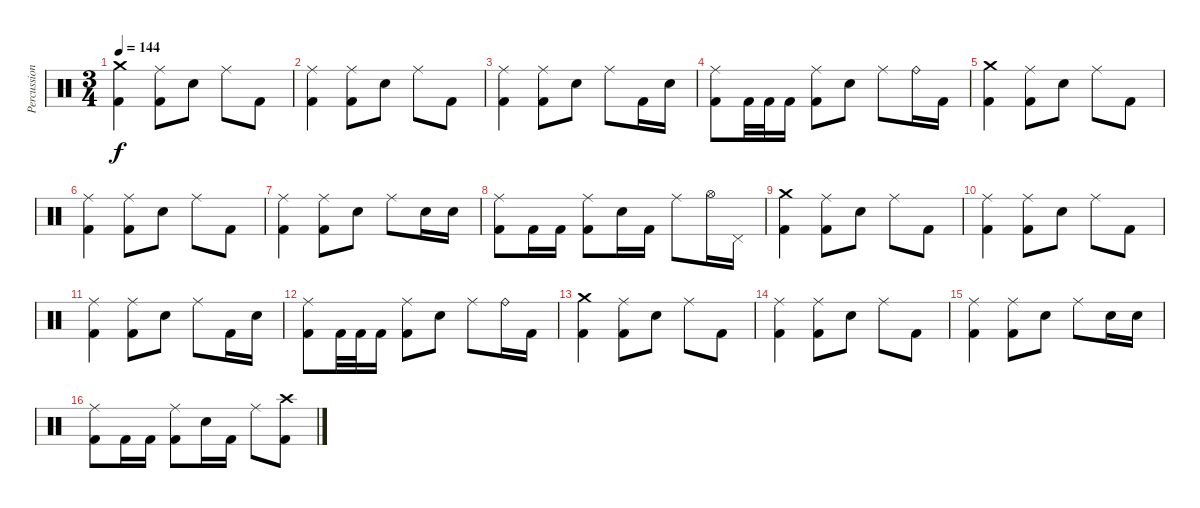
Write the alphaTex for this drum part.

\track ("Percussion" "Percussion") {instrument percussion}
\staff {score}
\articulation defaults
\ts (3 4)
\tempo 144
\clef neutral
\ks c
("Crash medium (hit)" "Kick (hit) 2").4{dy f} ("Ride (middle)" "Kick (hit) 2").8 "Electric Snare (hit)".8 "Ride (middle)".8 "Kick (hit) 2".8 |
("Ride (middle)" "Kick (hit) 2").4 ("Ride (middle)" "Kick (hit) 2").8 "Electric Snare (hit)".8 "Ride (middle)".8 "Kick (hit) 2".8 |
("Ride (middle)" "Kick (hit) 2").4 ("Ride (middle)" "Kick (hit) 2").8 "Electric Snare (hit)".8 "Ride (middle)".8 "Kick (hit) 2".16 "Electric Snare (hit)".16 |
("Ride (middle)" "Kick (hit) 2").8 "Kick (hit) 2".32 "Kick (hit) 2".32 "Kick (hit) 2".16 ("Ride (middle)" "Kick (hit) 2").8 "Electric Snare (hit)".8 "Ride (middle)".8 "Ride (bell)".16 "Kick (hit) 2".16 |
("Crash medium (hit)" "Kick (hit) 2").4 ("Ride (middle)" "Kick (hit) 2").8 "Electric Snare (hit)".8 "Ride (middle)".8 "Kick (hit) 2".8 |
("Ride (middle)" "Kick (hit) 2").4 ("Ride (middle)" "Kick (hit) 2").8 "Electric Snare (hit)".8 "Ride (middle)".8 "Kick (hit) 2".8 |
("Ride (middle)" "Kick (hit) 2").4 ("Ride (middle)" "Kick (hit) 2").8 "Electric Snare (hit)".8 "Ride (middle)".8 "Electric Snare (hit)".16 "Electric Snare (hit)".16 |
("Ride (middle)" "Kick (hit) 2").8 "Kick (hit) 2".16 "Kick (hit) 2".16 ("Ride (middle)" "Kick (hit) 2").8 "Electric Snare (hit)".16 "Kick (hit) 2".16 "Ride (middle)".8 "Hi-Hat (open)".16 "Pedal Hi-Hat (hit)".16 |
("Crash medium (hit)" "Kick (hit) 2").4 ("Ride (middle)" "Kick (hit) 2").8 "Electric Snare (hit)".8 "Ride (middle)".8 "Kick (hit) 2".8 |
("Ride (middle)" "Kick (hit) 2").4 ("Ride (middle)" "Kick (hit) 2").8 "Electric Snare (hit)".8 "Ride (middle)".8 "Kick (hit) 2".8 |
("Ride (middle)" "Kick (hit) 2").4 ("Ride (middle)" "Kick (hit) 2").8 "Electric Snare (hit)".8 "Ride (middle)".8 "Kick (hit) 2".16 "Electric Snare (hit)".16 |
("Ride (middle)" "Kick (hit) 2").8 "Kick (hit) 2".32 "Kick (hit) 2".32 "Kick (hit) 2".16 ("Ride (middle)" "Kick (hit) 2").8 "Electric Snare (hit)".8 "Ride (middle)".8 "Ride (bell)".16 "Kick (hit) 2".16 |
("Crash medium (hit)" "Kick (hit) 2").4 ("Ride (middle)" "Kick (hit) 2").8 "Electric Snare (hit)".8 "Ride (middle)".8 "Kick (hit) 2".8 |
("Ride (middle)" "Kick (hit) 2").4 ("Ride (middle)" "Kick (hit) 2").8 "Electric Snare (hit)".8 "Ride (middle)".8 "Kick (hit) 2".8 |
("Ride (middle)" "Kick (hit) 2").4 ("Ride (middle)" "Kick (hit) 2").8 "Electric Snare (hit)".8 "Ride (middle)".8 "Electric Snare (hit)".16 "Electric Snare (hit)".16 |
("Ride (middle)" "Kick (hit) 2").8 "Kick (hit) 2".16 "Kick (hit) 2".16 ("Ride (middle)" "Kick (hit) 2").8 "Electric Snare (hit)".16 "Kick (hit) 2".16 "Ride (middle)".8 ("Crash high (hit)" "Kick (hit) 2").8
